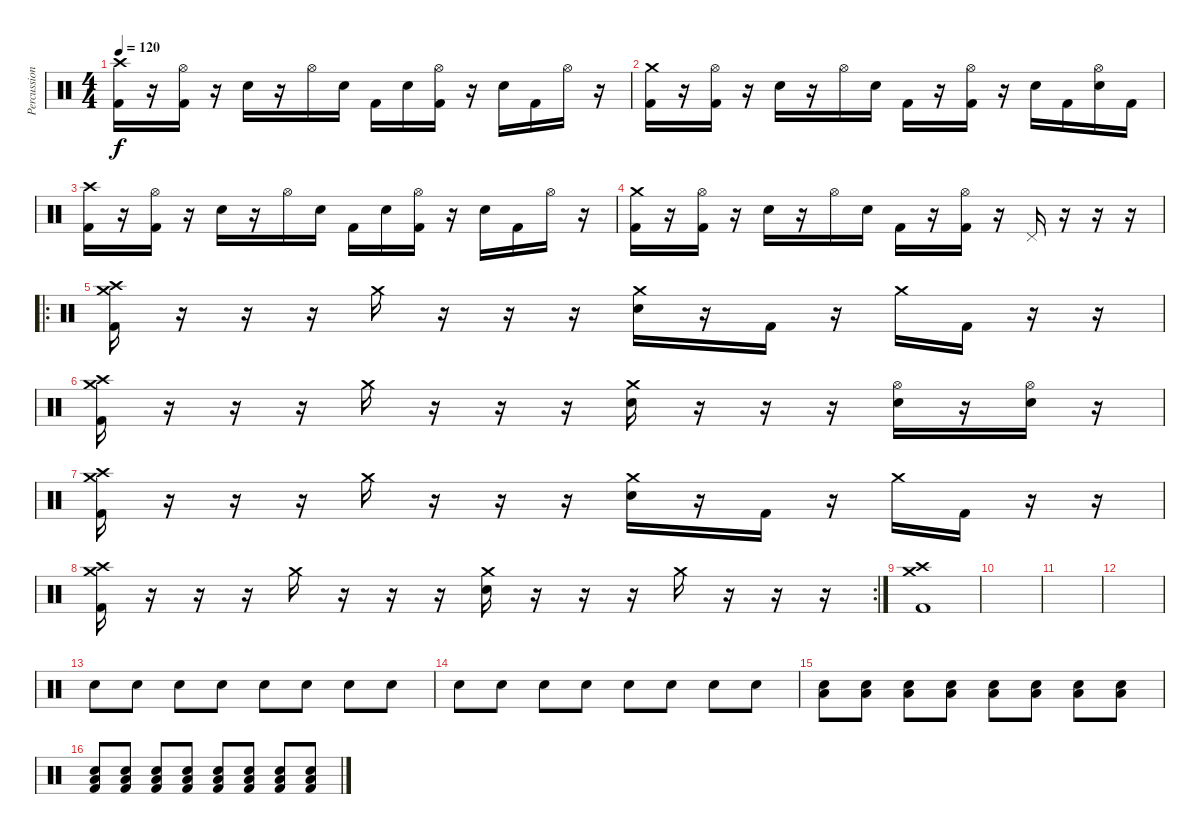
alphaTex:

\track ("Percussion" "Percussion") {instrument percussion}
\staff {score}
\articulation defaults
\ts (4 4)
\tempo 120
\clef neutral
\ks c
("Crash high (hit)" "Kick (hit) 2").16{dy f} r.16 ("Hi-Hat (open)" "Kick (hit) 2").16 r.16 "Electric Snare (hit)".16 r.16 "Hi-Hat (open)".16 "Electric Snare (hit)".16 "Kick (hit) 2".16 "Electric Snare (hit)".16 ("Hi-Hat (open)" "Kick (hit) 2").16 r.16 "Electric Snare (hit)".16 "Kick (hit) 2".16 "Hi-Hat (open)".16 r.16 |
("Crash medium (hit)" "Kick (hit) 2").16 r.16 ("Hi-Hat (open)" "Kick (hit) 2").16 r.16 "Electric Snare (hit)".16 r.16 "Hi-Hat (open)".16 "Electric Snare (hit)".16 "Kick (hit) 2".16 r.16 ("Hi-Hat (open)" "Kick (hit) 2").16 r.16 "Electric Snare (hit)".16 "Kick (hit) 2".16 ("Hi-Hat (open)" "Electric Snare (hit)").16 "Kick (hit) 2".16 |
("Crash high (hit)" "Kick (hit) 2").16 r.16 ("Hi-Hat (open)" "Kick (hit) 2").16 r.16 "Electric Snare (hit)".16 r.16 "Hi-Hat (open)".16 "Electric Snare (hit)".16 "Kick (hit) 2".16 "Electric Snare (hit)".16 ("Hi-Hat (open)" "Kick (hit) 2").16 r.16 "Electric Snare (hit)".16 "Kick (hit) 2".16 "Hi-Hat (open)".16 r.16 |
("Crash medium (hit)" "Kick (hit) 2").16 r.16 ("Hi-Hat (open)" "Kick (hit) 2").16 r.16 "Electric Snare (hit)".16 r.16 "Hi-Hat (open)".16 "Electric Snare (hit)".16 "Kick (hit) 2".16 r.16 ("Hi-Hat (open)" "Kick (hit) 2").16 r.16 "Pedal Hi-Hat (hit)".16 r.16 r.16 r.16 |
\ro
("Crash medium (hit)" "Crash high (hit)" "Kick (hit) 2").16 r.16 r.16 r.16 "Crash medium (hit)".16 r.16 r.16 r.16 ("Crash medium (hit)" "Electric Snare (hit)").16 r.16 "Kick (hit) 2".16 r.16 "Crash medium (hit)".16 "Kick (hit) 2".16 r.16 r.16 |
("Crash medium (hit)" "Crash high (hit)" "Kick (hit) 2").16 r.16 r.16 r.16 "Crash medium (hit)".16 r.16 r.16 r.16 ("Crash medium (hit)" "Electric Snare (hit)").16 r.16 r.16 r.16 ("Hi-Hat (open)" "Electric Snare (hit)").16 r.16 ("Hi-Hat (open)" "Electric Snare (hit)").16 r.16 |
("Crash medium (hit)" "Crash high (hit)" "Kick (hit) 2").16 r.16 r.16 r.16 "Crash medium (hit)".16 r.16 r.16 r.16 ("Crash medium (hit)" "Electric Snare (hit)").16 r.16 "Kick (hit) 2".16 r.16 "Crash medium (hit)".16 "Kick (hit) 2".16 r.16 r.16 |
\rc 2
("Crash medium (hit)" "Crash high (hit)" "Kick (hit) 2").16 r.16 r.16 r.16 "Crash medium (hit)".16 r.16 r.16 r.16 ("Crash medium (hit)" "Electric Snare (hit)").16 r.16 r.16 r.16 "Crash medium (hit)".16 r.16 r.16 r.16 |
("Crash medium (hit)" "Crash high (hit)" "Kick (hit) 2").1 |
|
|
|
"Electric Snare (hit)".8 "Electric Snare (hit)".8 "Electric Snare (hit)".8 "Electric Snare (hit)".8 "Electric Snare (hit)".8 "Electric Snare (hit)".8 "Electric Snare (hit)".8 "Electric Snare (hit)".8 |
"Electric Snare (hit)".8 "Electric Snare (hit)".8 "Electric Snare (hit)".8 "Electric Snare (hit)".8 "Electric Snare (hit)".8 "Electric Snare (hit)".8 "Electric Snare (hit)".8 "Electric Snare (hit)".8 |
("Low Floor Tom (hit)" "Electric Snare (hit)").8 ("Low Floor Tom (hit)" "Electric Snare (hit)").8 ("Low Floor Tom (hit)" "Electric Snare (hit)").8 ("Low Floor Tom (hit)" "Electric Snare (hit)").8 ("Low Floor Tom (hit)" "Electric Snare (hit)").8 ("Low Floor Tom (hit)" "Electric Snare (hit)").8 ("Low Floor Tom (hit)" "Electric Snare (hit)").8 ("Low Floor Tom (hit)" "Electric Snare (hit)").8 |
("Kick (hit) 2" "Low Floor Tom (hit)" "Electric Snare (hit)").8 ("Kick (hit) 2" "Low Floor Tom (hit)" "Electric Snare (hit)").8 ("Kick (hit) 2" "Low Floor Tom (hit)" "Electric Snare (hit)").8 ("Kick (hit) 2" "Low Floor Tom (hit)" "Electric Snare (hit)").8 ("Kick (hit) 2" "Low Floor Tom (hit)" "Electric Snare (hit)").8 ("Kick (hit) 2" "Low Floor Tom (hit)" "Electric Snare (hit)").8 ("Kick (hit) 2" "Low Floor Tom (hit)" "Electric Snare (hit)").8 ("Kick (hit) 2" "Low Floor Tom (hit)" "Electric Snare (hit)").8
